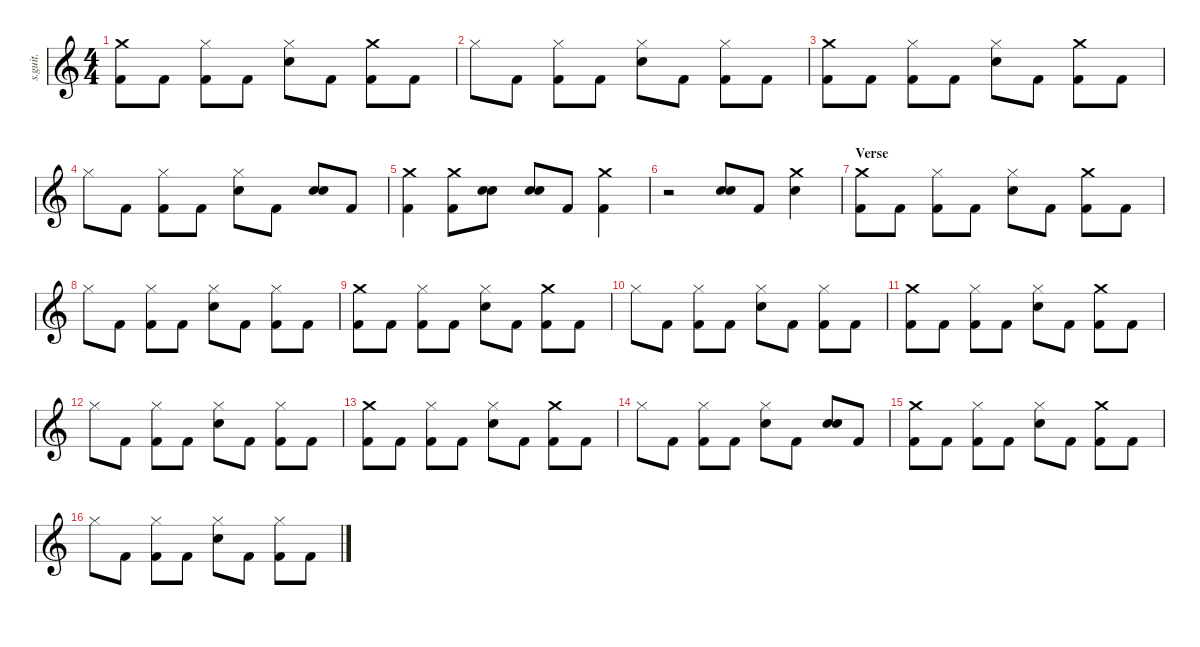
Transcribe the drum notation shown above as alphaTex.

\defaultSystemsLayout 4
\hideDynamics
\bracketExtendMode nobrackets
\track ("Taylor Hawkins" "s.guit.") {instrument percussion}
\staff {score}
\articulation defaults
\ts (4 4)
\tempo (154 hide)
\clef g2
\ks c
("Crash medium (hit)" "Kick (hit) 2").8{lyrics (0 "") lyrics (1 "") lyrics (2 "") lyrics (3 "") lyrics (4 "") dy f} "Kick (hit) 2".8{lyrics (0 "") lyrics (1 "") lyrics (2 "") lyrics (3 "") lyrics (4 "")} ("Hi-Hat (closed)" "Kick (hit) 2").8{lyrics (0 "") lyrics (1 "") lyrics (2 "") lyrics (3 "") lyrics (4 "")} "Kick (hit) 2".8{lyrics (0 "") lyrics (1 "") lyrics (2 "") lyrics (3 "") lyrics (4 "")} ("Hi-Hat (closed)" "Electric Snare (hit)").8{lyrics (0 "") lyrics (1 "") lyrics (2 "") lyrics (3 "") lyrics (4 "")} "Kick (hit) 2".8{lyrics (0 "") lyrics (1 "") lyrics (2 "") lyrics (3 "") lyrics (4 "")} ("Crash medium (hit)" "Kick (hit) 2").8{lyrics (0 "") lyrics (1 "") lyrics (2 "") lyrics (3 "") lyrics (4 "")} "Kick (hit) 2".8{lyrics (0 "") lyrics (1 "") lyrics (2 "") lyrics (3 "") lyrics (4 "")} |
"Hi-Hat (closed)".8{lyrics (0 "") lyrics (1 "") lyrics (2 "") lyrics (3 "") lyrics (4 "")} "Kick (hit) 2".8{lyrics (0 "") lyrics (1 "") lyrics (2 "") lyrics (3 "") lyrics (4 "")} ("Hi-Hat (closed)" "Kick (hit) 2").8{lyrics (0 "") lyrics (1 "") lyrics (2 "") lyrics (3 "") lyrics (4 "")} "Kick (hit) 2".8{lyrics (0 "") lyrics (1 "") lyrics (2 "") lyrics (3 "") lyrics (4 "")} ("Hi-Hat (closed)" "Electric Snare (hit)").8{lyrics (0 "") lyrics (1 "") lyrics (2 "") lyrics (3 "") lyrics (4 "")} "Kick (hit) 2".8{lyrics (0 "") lyrics (1 "") lyrics (2 "") lyrics (3 "") lyrics (4 "")} ("Hi-Hat (closed)" "Kick (hit) 2").8{lyrics (0 "") lyrics (1 "") lyrics (2 "") lyrics (3 "") lyrics (4 "")} "Kick (hit) 2".8{lyrics (0 "") lyrics (1 "") lyrics (2 "") lyrics (3 "") lyrics (4 "")} |
("Crash medium (hit)" "Kick (hit) 2").8{lyrics (0 "") lyrics (1 "") lyrics (2 "") lyrics (3 "") lyrics (4 "")} "Kick (hit) 2".8{lyrics (0 "") lyrics (1 "") lyrics (2 "") lyrics (3 "") lyrics (4 "")} ("Hi-Hat (closed)" "Kick (hit) 2").8{lyrics (0 "") lyrics (1 "") lyrics (2 "") lyrics (3 "") lyrics (4 "")} "Kick (hit) 2".8{lyrics (0 "") lyrics (1 "") lyrics (2 "") lyrics (3 "") lyrics (4 "")} ("Hi-Hat (closed)" "Electric Snare (hit)").8{lyrics (0 "") lyrics (1 "") lyrics (2 "") lyrics (3 "") lyrics (4 "")} "Kick (hit) 2".8{lyrics (0 "") lyrics (1 "") lyrics (2 "") lyrics (3 "") lyrics (4 "")} ("Crash medium (hit)" "Kick (hit) 2").8{lyrics (0 "") lyrics (1 "") lyrics (2 "") lyrics (3 "") lyrics (4 "")} "Kick (hit) 2".8{lyrics (0 "") lyrics (1 "") lyrics (2 "") lyrics (3 "") lyrics (4 "")} |
"Hi-Hat (closed)".8{lyrics (0 "") lyrics (1 "") lyrics (2 "") lyrics (3 "") lyrics (4 "")} "Kick (hit) 2".8{lyrics (0 "") lyrics (1 "") lyrics (2 "") lyrics (3 "") lyrics (4 "")} ("Hi-Hat (closed)" "Kick (hit) 2").8{lyrics (0 "") lyrics (1 "") lyrics (2 "") lyrics (3 "") lyrics (4 "")} "Kick (hit) 2".8{lyrics (0 "") lyrics (1 "") lyrics (2 "") lyrics (3 "") lyrics (4 "")} ("Hi-Hat (closed)" "Electric Snare (hit)").8{lyrics (0 "") lyrics (1 "") lyrics (2 "") lyrics (3 "") lyrics (4 "")} "Kick (hit) 2".8{lyrics (0 "") lyrics (1 "") lyrics (2 "") lyrics (3 "") lyrics (4 "")} ("Snare (hit) 2" "Electric Snare (hit)").8{lyrics (0 "") lyrics (1 "") lyrics (2 "") lyrics (3 "") lyrics (4 "")} "Kick (hit) 2".8{lyrics (0 "") lyrics (1 "") lyrics (2 "") lyrics (3 "") lyrics (4 "")} |
("Crash medium (hit)" "Kick (hit) 2").4{lyrics (0 "") lyrics (1 "") lyrics (2 "") lyrics (3 "") lyrics (4 "")} ("Crash medium (hit)" "Kick (hit) 2").8{lyrics (0 "") lyrics (1 "") lyrics (2 "") lyrics (3 "") lyrics (4 "")} ("Snare (hit) 2" "Electric Snare (hit)").8{lyrics (0 "") lyrics (1 "") lyrics (2 "") lyrics (3 "") lyrics (4 "")} ("Snare (hit) 2" "Electric Snare (hit)").8{lyrics (0 "") lyrics (1 "") lyrics (2 "") lyrics (3 "") lyrics (4 "")} "Kick (hit) 2".8{lyrics (0 "") lyrics (1 "") lyrics (2 "") lyrics (3 "") lyrics (4 "")} ("Crash medium (hit)" "Kick (hit) 2").4{lyrics (0 "") lyrics (1 "") lyrics (2 "") lyrics (3 "") lyrics (4 "")} |
r.2 ("Snare (hit) 2" "Electric Snare (hit)").8{lyrics (0 "") lyrics (1 "") lyrics (2 "") lyrics (3 "") lyrics (4 "")} "Kick (hit) 2".8{lyrics (0 "") lyrics (1 "") lyrics (2 "") lyrics (3 "") lyrics (4 "")} ("Crash medium (hit)" "Electric Snare (hit)").4{lyrics (0 "") lyrics (1 "") lyrics (2 "") lyrics (3 "") lyrics (4 "")} |
\section ("" "Verse")
("Crash medium (hit)" "Kick (hit) 2").8{lyrics (0 "") lyrics (1 "") lyrics (2 "") lyrics (3 "") lyrics (4 "")} "Kick (hit) 2".8{lyrics (0 "") lyrics (1 "") lyrics (2 "") lyrics (3 "") lyrics (4 "")} ("Hi-Hat (closed)" "Kick (hit) 2").8{lyrics (0 "") lyrics (1 "") lyrics (2 "") lyrics (3 "") lyrics (4 "")} "Kick (hit) 2".8{lyrics (0 "") lyrics (1 "") lyrics (2 "") lyrics (3 "") lyrics (4 "")} ("Hi-Hat (closed)" "Electric Snare (hit)").8{lyrics (0 "") lyrics (1 "") lyrics (2 "") lyrics (3 "") lyrics (4 "")} "Kick (hit) 2".8{lyrics (0 "") lyrics (1 "") lyrics (2 "") lyrics (3 "") lyrics (4 "")} ("Crash medium (hit)" "Kick (hit) 2").8{lyrics (0 "") lyrics (1 "") lyrics (2 "") lyrics (3 "") lyrics (4 "")} "Kick (hit) 2".8{lyrics (0 "") lyrics (1 "") lyrics (2 "") lyrics (3 "") lyrics (4 "")} |
"Hi-Hat (closed)".8{lyrics (0 "") lyrics (1 "") lyrics (2 "") lyrics (3 "") lyrics (4 "")} "Kick (hit) 2".8{lyrics (0 "") lyrics (1 "") lyrics (2 "") lyrics (3 "") lyrics (4 "")} ("Hi-Hat (closed)" "Kick (hit) 2").8{lyrics (0 "") lyrics (1 "") lyrics (2 "") lyrics (3 "") lyrics (4 "")} "Kick (hit) 2".8{lyrics (0 "") lyrics (1 "") lyrics (2 "") lyrics (3 "") lyrics (4 "")} ("Hi-Hat (closed)" "Electric Snare (hit)").8{lyrics (0 "") lyrics (1 "") lyrics (2 "") lyrics (3 "") lyrics (4 "")} "Kick (hit) 2".8{lyrics (0 "") lyrics (1 "") lyrics (2 "") lyrics (3 "") lyrics (4 "")} ("Hi-Hat (closed)" "Kick (hit) 2").8{lyrics (0 "") lyrics (1 "") lyrics (2 "") lyrics (3 "") lyrics (4 "")} "Kick (hit) 2".8{lyrics (0 "") lyrics (1 "") lyrics (2 "") lyrics (3 "") lyrics (4 "")} |
("Crash medium (hit)" "Kick (hit) 2").8{lyrics (0 "") lyrics (1 "") lyrics (2 "") lyrics (3 "") lyrics (4 "")} "Kick (hit) 2".8{lyrics (0 "") lyrics (1 "") lyrics (2 "") lyrics (3 "") lyrics (4 "")} ("Hi-Hat (closed)" "Kick (hit) 2").8{lyrics (0 "") lyrics (1 "") lyrics (2 "") lyrics (3 "") lyrics (4 "")} "Kick (hit) 2".8{lyrics (0 "") lyrics (1 "") lyrics (2 "") lyrics (3 "") lyrics (4 "")} ("Hi-Hat (closed)" "Electric Snare (hit)").8{lyrics (0 "") lyrics (1 "") lyrics (2 "") lyrics (3 "") lyrics (4 "")} "Kick (hit) 2".8{lyrics (0 "") lyrics (1 "") lyrics (2 "") lyrics (3 "") lyrics (4 "")} ("Crash medium (hit)" "Kick (hit) 2").8{lyrics (0 "") lyrics (1 "") lyrics (2 "") lyrics (3 "") lyrics (4 "")} "Kick (hit) 2".8{lyrics (0 "") lyrics (1 "") lyrics (2 "") lyrics (3 "") lyrics (4 "")} |
"Hi-Hat (closed)".8{lyrics (0 "") lyrics (1 "") lyrics (2 "") lyrics (3 "") lyrics (4 "")} "Kick (hit) 2".8{lyrics (0 "") lyrics (1 "") lyrics (2 "") lyrics (3 "") lyrics (4 "")} ("Hi-Hat (closed)" "Kick (hit) 2").8{lyrics (0 "") lyrics (1 "") lyrics (2 "") lyrics (3 "") lyrics (4 "")} "Kick (hit) 2".8{lyrics (0 "") lyrics (1 "") lyrics (2 "") lyrics (3 "") lyrics (4 "")} ("Hi-Hat (closed)" "Electric Snare (hit)").8{lyrics (0 "") lyrics (1 "") lyrics (2 "") lyrics (3 "") lyrics (4 "")} "Kick (hit) 2".8{lyrics (0 "") lyrics (1 "") lyrics (2 "") lyrics (3 "") lyrics (4 "")} ("Hi-Hat (closed)" "Kick (hit) 2").8{lyrics (0 "") lyrics (1 "") lyrics (2 "") lyrics (3 "") lyrics (4 "")} "Kick (hit) 2".8{lyrics (0 "") lyrics (1 "") lyrics (2 "") lyrics (3 "") lyrics (4 "")} |
("Crash medium (hit)" "Kick (hit) 2").8{lyrics (0 "") lyrics (1 "") lyrics (2 "") lyrics (3 "") lyrics (4 "")} "Kick (hit) 2".8{lyrics (0 "") lyrics (1 "") lyrics (2 "") lyrics (3 "") lyrics (4 "")} ("Hi-Hat (closed)" "Kick (hit) 2").8{lyrics (0 "") lyrics (1 "") lyrics (2 "") lyrics (3 "") lyrics (4 "")} "Kick (hit) 2".8{lyrics (0 "") lyrics (1 "") lyrics (2 "") lyrics (3 "") lyrics (4 "")} ("Hi-Hat (closed)" "Electric Snare (hit)").8{lyrics (0 "") lyrics (1 "") lyrics (2 "") lyrics (3 "") lyrics (4 "")} "Kick (hit) 2".8{lyrics (0 "") lyrics (1 "") lyrics (2 "") lyrics (3 "") lyrics (4 "")} ("Crash medium (hit)" "Kick (hit) 2").8{lyrics (0 "") lyrics (1 "") lyrics (2 "") lyrics (3 "") lyrics (4 "")} "Kick (hit) 2".8{lyrics (0 "") lyrics (1 "") lyrics (2 "") lyrics (3 "") lyrics (4 "")} |
"Hi-Hat (closed)".8{lyrics (0 "") lyrics (1 "") lyrics (2 "") lyrics (3 "") lyrics (4 "")} "Kick (hit) 2".8{lyrics (0 "") lyrics (1 "") lyrics (2 "") lyrics (3 "") lyrics (4 "")} ("Hi-Hat (closed)" "Kick (hit) 2").8{lyrics (0 "") lyrics (1 "") lyrics (2 "") lyrics (3 "") lyrics (4 "")} "Kick (hit) 2".8{lyrics (0 "") lyrics (1 "") lyrics (2 "") lyrics (3 "") lyrics (4 "")} ("Hi-Hat (closed)" "Electric Snare (hit)").8{lyrics (0 "") lyrics (1 "") lyrics (2 "") lyrics (3 "") lyrics (4 "")} "Kick (hit) 2".8{lyrics (0 "") lyrics (1 "") lyrics (2 "") lyrics (3 "") lyrics (4 "")} ("Hi-Hat (closed)" "Kick (hit) 2").8{lyrics (0 "") lyrics (1 "") lyrics (2 "") lyrics (3 "") lyrics (4 "")} "Kick (hit) 2".8{lyrics (0 "") lyrics (1 "") lyrics (2 "") lyrics (3 "") lyrics (4 "")} |
("Crash medium (hit)" "Kick (hit) 2").8{lyrics (0 "") lyrics (1 "") lyrics (2 "") lyrics (3 "") lyrics (4 "")} "Kick (hit) 2".8{lyrics (0 "") lyrics (1 "") lyrics (2 "") lyrics (3 "") lyrics (4 "")} ("Hi-Hat (closed)" "Kick (hit) 2").8{lyrics (0 "") lyrics (1 "") lyrics (2 "") lyrics (3 "") lyrics (4 "")} "Kick (hit) 2".8{lyrics (0 "") lyrics (1 "") lyrics (2 "") lyrics (3 "") lyrics (4 "")} ("Hi-Hat (closed)" "Electric Snare (hit)").8{lyrics (0 "") lyrics (1 "") lyrics (2 "") lyrics (3 "") lyrics (4 "")} "Kick (hit) 2".8{lyrics (0 "") lyrics (1 "") lyrics (2 "") lyrics (3 "") lyrics (4 "")} ("Crash medium (hit)" "Kick (hit) 2").8{lyrics (0 "") lyrics (1 "") lyrics (2 "") lyrics (3 "") lyrics (4 "")} "Kick (hit) 2".8{lyrics (0 "") lyrics (1 "") lyrics (2 "") lyrics (3 "") lyrics (4 "")} |
"Hi-Hat (closed)".8{lyrics (0 "") lyrics (1 "") lyrics (2 "") lyrics (3 "") lyrics (4 "")} "Kick (hit) 2".8{lyrics (0 "") lyrics (1 "") lyrics (2 "") lyrics (3 "") lyrics (4 "")} ("Hi-Hat (closed)" "Kick (hit) 2").8{lyrics (0 "") lyrics (1 "") lyrics (2 "") lyrics (3 "") lyrics (4 "")} "Kick (hit) 2".8{lyrics (0 "") lyrics (1 "") lyrics (2 "") lyrics (3 "") lyrics (4 "")} ("Hi-Hat (closed)" "Electric Snare (hit)").8{lyrics (0 "") lyrics (1 "") lyrics (2 "") lyrics (3 "") lyrics (4 "")} "Kick (hit) 2".8{lyrics (0 "") lyrics (1 "") lyrics (2 "") lyrics (3 "") lyrics (4 "")} ("Snare (hit) 2" "Electric Snare (hit)").8{lyrics (0 "") lyrics (1 "") lyrics (2 "") lyrics (3 "") lyrics (4 "")} "Kick (hit) 2".8{lyrics (0 "") lyrics (1 "") lyrics (2 "") lyrics (3 "") lyrics (4 "")} |
("Crash medium (hit)" "Kick (hit) 2").8{lyrics (0 "") lyrics (1 "") lyrics (2 "") lyrics (3 "") lyrics (4 "")} "Kick (hit) 2".8{lyrics (0 "") lyrics (1 "") lyrics (2 "") lyrics (3 "") lyrics (4 "")} ("Hi-Hat (closed)" "Kick (hit) 2").8{lyrics (0 "") lyrics (1 "") lyrics (2 "") lyrics (3 "") lyrics (4 "")} "Kick (hit) 2".8{lyrics (0 "") lyrics (1 "") lyrics (2 "") lyrics (3 "") lyrics (4 "")} ("Hi-Hat (closed)" "Electric Snare (hit)").8{lyrics (0 "") lyrics (1 "") lyrics (2 "") lyrics (3 "") lyrics (4 "")} "Kick (hit) 2".8{lyrics (0 "") lyrics (1 "") lyrics (2 "") lyrics (3 "") lyrics (4 "")} ("Crash medium (hit)" "Kick (hit) 2").8{lyrics (0 "") lyrics (1 "") lyrics (2 "") lyrics (3 "") lyrics (4 "")} "Kick (hit) 2".8{lyrics (0 "") lyrics (1 "") lyrics (2 "") lyrics (3 "") lyrics (4 "")} |
"Hi-Hat (closed)".8{lyrics (0 "") lyrics (1 "") lyrics (2 "") lyrics (3 "") lyrics (4 "")} "Kick (hit) 2".8{lyrics (0 "") lyrics (1 "") lyrics (2 "") lyrics (3 "") lyrics (4 "")} ("Hi-Hat (closed)" "Kick (hit) 2").8{lyrics (0 "") lyrics (1 "") lyrics (2 "") lyrics (3 "") lyrics (4 "")} "Kick (hit) 2".8{lyrics (0 "") lyrics (1 "") lyrics (2 "") lyrics (3 "") lyrics (4 "")} ("Hi-Hat (closed)" "Electric Snare (hit)").8{lyrics (0 "") lyrics (1 "") lyrics (2 "") lyrics (3 "") lyrics (4 "")} "Kick (hit) 2".8{lyrics (0 "") lyrics (1 "") lyrics (2 "") lyrics (3 "") lyrics (4 "")} ("Hi-Hat (closed)" "Kick (hit) 2").8{lyrics (0 "") lyrics (1 "") lyrics (2 "") lyrics (3 "") lyrics (4 "")} "Kick (hit) 2".8{lyrics (0 "") lyrics (1 "") lyrics (2 "") lyrics (3 "") lyrics (4 "")}
